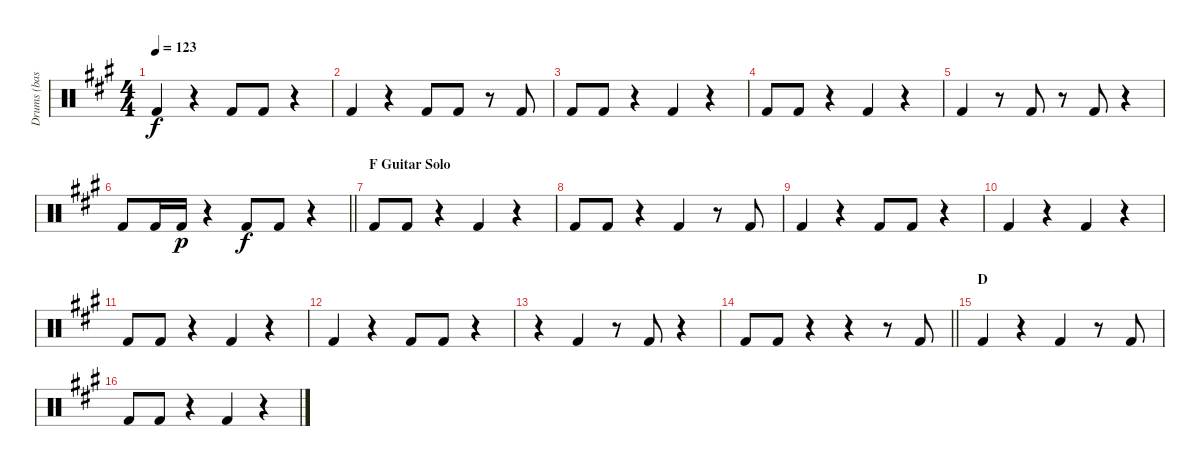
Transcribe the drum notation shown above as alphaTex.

\track ("Drums (bass Drums)" "Drums (bas") {instrument percussion}
\staff {score}
\articulation defaults
\ts (4 4)
\tempo 123
\clef neutral
\ks a "Kick (hit) 2".4{dy f}
r.4 "Kick (hit) 2".8 "Kick (hit) 2".8 r.4 |
"Kick (hit) 2".4 r.4 "Kick (hit) 2".8 "Kick (hit) 2".8 r.8 "Kick (hit) 2".8 |
"Kick (hit) 2".8 "Kick (hit) 2".8 r.4 "Kick (hit) 2".4 r.4 |
"Kick (hit) 2".8 "Kick (hit) 2".8 r.4 "Kick (hit) 2".4 r.4 |
"Kick (hit) 2".4 r.8 "Kick (hit) 2".8 r.8 "Kick (hit) 2".8 r.4 |
\barLineRight lightlight "Kick (hit) 2".8 "Kick (hit) 2".16 "Kick (hit) 2".16{dy p}
r.4 "Kick (hit) 2".8{dy f} "Kick (hit) 2".8 r.4 |
\section ("" "F Guitar Solo")
"Kick (hit) 2".8 "Kick (hit) 2".8 r.4 "Kick (hit) 2".4 r.4 |
"Kick (hit) 2".8 "Kick (hit) 2".8 r.4 "Kick (hit) 2".4 r.8 "Kick (hit) 2".8 |
"Kick (hit) 2".4 r.4 "Kick (hit) 2".8 "Kick (hit) 2".8 r.4 |
"Kick (hit) 2".4 r.4 "Kick (hit) 2".4 r.4 |
"Kick (hit) 2".8 "Kick (hit) 2".8 r.4 "Kick (hit) 2".4 r.4 |
"Kick (hit) 2".4 r.4 "Kick (hit) 2".8 "Kick (hit) 2".8 r.4 |
r.4 "Kick (hit) 2".4 r.8 "Kick (hit) 2".8 r.4 |
\barLineRight lightlight "Kick (hit) 2".8 "Kick (hit) 2".8
r.4 r.4 r.8 "Kick (hit) 2".8 |
\section ("" "D")
"Kick (hit) 2".4 r.4 "Kick (hit) 2".4 r.8 "Kick (hit) 2".8 |
"Kick (hit) 2".8 "Kick (hit) 2".8 r.4 "Kick (hit) 2".4 r.4
